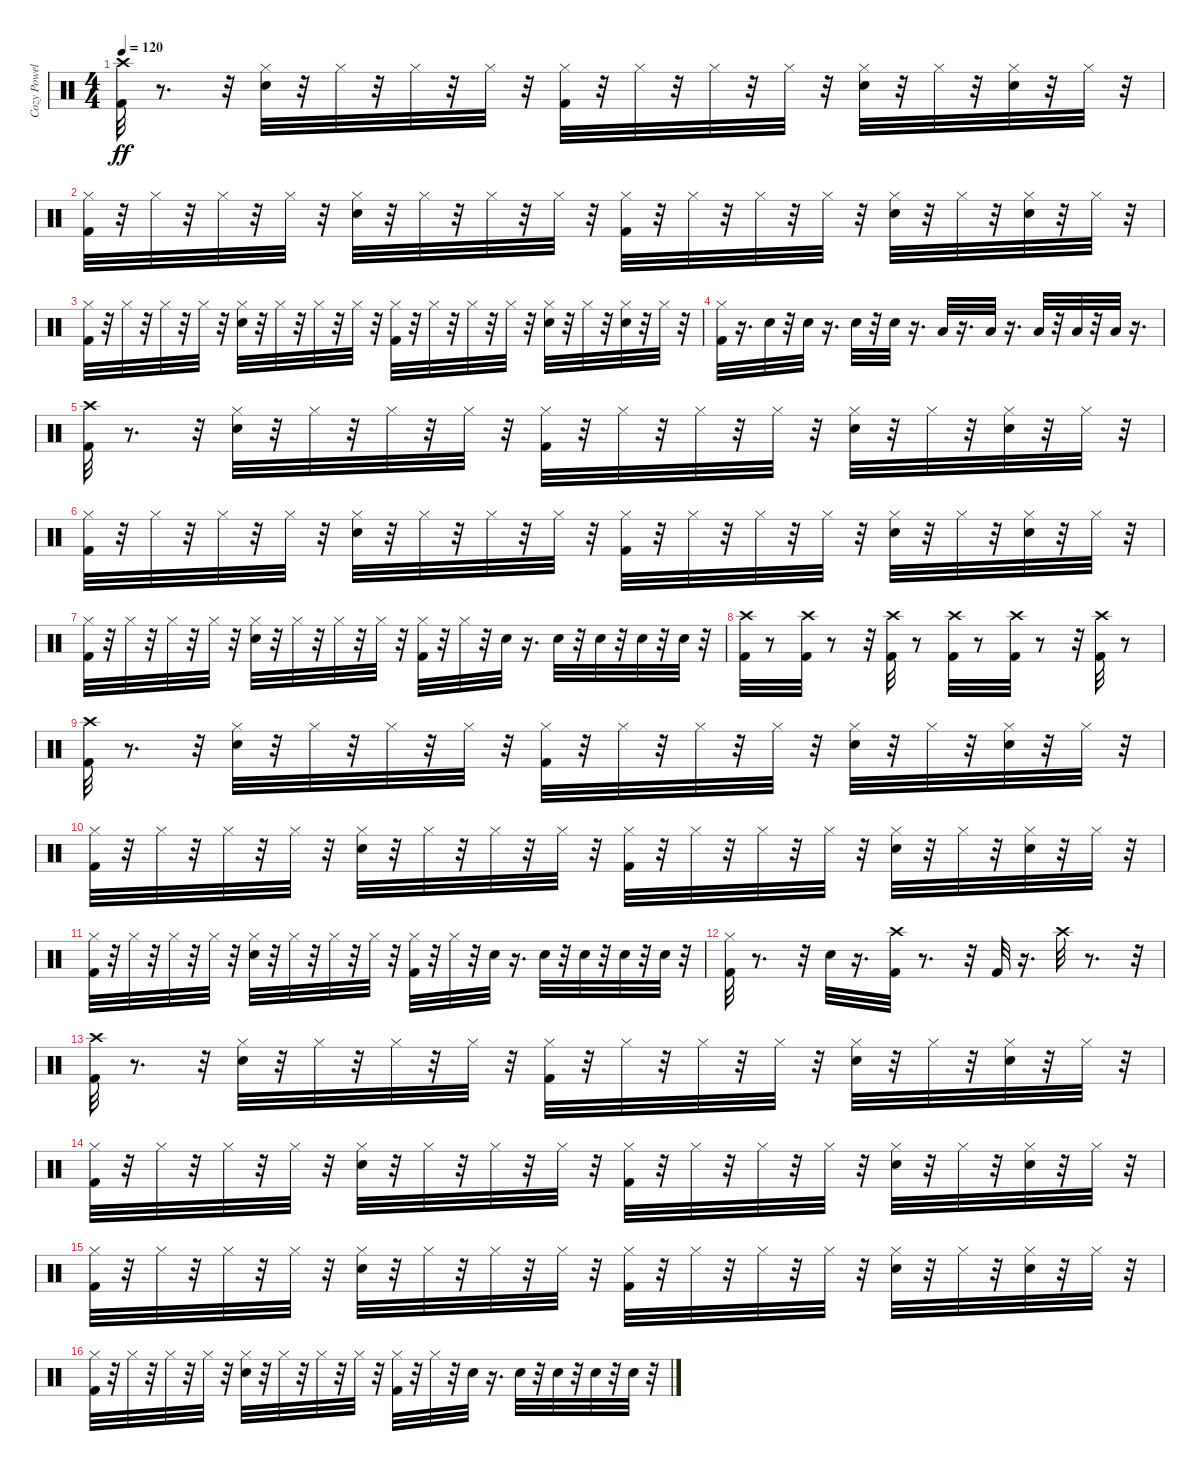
\track ("Cozy Powel" "Cozy Powel") {instrument percussion}
\staff {score}
\articulation defaults
\ts (4 4)
\tempo 120
\clef neutral
\ks c
("Kick (hit) 2" "Crash high (hit)").32{dy ff} r.8{d} r.32 ("Snare (hit) 2" "Hi-Hat (closed)").32 r.32 "Hi-Hat (closed)".32 r.32 "Hi-Hat (closed)".32 r.32 "Hi-Hat (closed)".32 r.32 ("Kick (hit) 2" "Hi-Hat (closed)").32 r.32 "Hi-Hat (closed)".32 r.32 "Hi-Hat (closed)".32 r.32 "Hi-Hat (closed)".32 r.32 ("Snare (hit) 2" "Hi-Hat (closed)").32 r.32 "Hi-Hat (closed)".32 r.32 ("Snare (hit) 2" "Hi-Hat (closed)").32 r.32 "Hi-Hat (closed)".32 r.32 |
("Kick (hit) 2" "Hi-Hat (closed)").32 r.32 "Hi-Hat (closed)".32 r.32 "Hi-Hat (closed)".32 r.32 "Hi-Hat (closed)".32 r.32 ("Snare (hit) 2" "Hi-Hat (closed)").32 r.32 "Hi-Hat (closed)".32 r.32 "Hi-Hat (closed)".32 r.32 "Hi-Hat (closed)".32 r.32 ("Kick (hit) 2" "Hi-Hat (closed)").32 r.32 "Hi-Hat (closed)".32 r.32 "Hi-Hat (closed)".32 r.32 "Hi-Hat (closed)".32 r.32 ("Snare (hit) 2" "Hi-Hat (closed)").32 r.32 "Hi-Hat (closed)".32 r.32 ("Snare (hit) 2" "Hi-Hat (closed)").32 r.32 "Hi-Hat (closed)".32 r.32 |
("Kick (hit) 2" "Hi-Hat (closed)").32 r.32 "Hi-Hat (closed)".32 r.32 "Hi-Hat (closed)".32 r.32 "Hi-Hat (closed)".32 r.32 ("Snare (hit) 2" "Hi-Hat (closed)").32 r.32 "Hi-Hat (closed)".32 r.32 "Hi-Hat (closed)".32 r.32 "Hi-Hat (closed)".32 r.32 ("Kick (hit) 2" "Hi-Hat (closed)").32 r.32 "Hi-Hat (closed)".32 r.32 "Hi-Hat (closed)".32 r.32 "Hi-Hat (closed)".32 r.32 ("Snare (hit) 2" "Hi-Hat (closed)").32 r.32 "Hi-Hat (closed)".32 r.32 ("Snare (hit) 2" "Hi-Hat (closed)").32 r.32 "Hi-Hat (closed)".32 r.32 |
("Kick (hit) 2" "Hi-Hat (closed)").32 r.16{d} "Snare (hit) 2".32 r.32 "Snare (hit) 2".32 r.16{d} "Snare (hit) 2".32 r.32 "Snare (hit) 2".32 r.16{d} "Low Tom (hit)".32 r.16{d} "Low Tom (hit)".32 r.16{d} "Low Tom (hit)".32 r.32 "Low Tom (hit)".32 r.32 "Low Tom (hit)".32 r.16{d} |
("Kick (hit) 2" "Crash high (hit)").32 r.8{d} r.32 ("Snare (hit) 2" "Hi-Hat (closed)").32 r.32 "Hi-Hat (closed)".32 r.32 "Hi-Hat (closed)".32 r.32 "Hi-Hat (closed)".32 r.32 ("Kick (hit) 2" "Hi-Hat (closed)").32 r.32 "Hi-Hat (closed)".32 r.32 "Hi-Hat (closed)".32 r.32 "Hi-Hat (closed)".32 r.32 ("Snare (hit) 2" "Hi-Hat (closed)").32 r.32 "Hi-Hat (closed)".32 r.32 ("Snare (hit) 2" "Hi-Hat (closed)").32 r.32 "Hi-Hat (closed)".32 r.32 |
("Kick (hit) 2" "Hi-Hat (closed)").32 r.32 "Hi-Hat (closed)".32 r.32 "Hi-Hat (closed)".32 r.32 "Hi-Hat (closed)".32 r.32 ("Snare (hit) 2" "Hi-Hat (closed)").32 r.32 "Hi-Hat (closed)".32 r.32 "Hi-Hat (closed)".32 r.32 "Hi-Hat (closed)".32 r.32 ("Kick (hit) 2" "Hi-Hat (closed)").32 r.32 "Hi-Hat (closed)".32 r.32 "Hi-Hat (closed)".32 r.32 "Hi-Hat (closed)".32 r.32 ("Snare (hit) 2" "Hi-Hat (closed)").32 r.32 "Hi-Hat (closed)".32 r.32 ("Snare (hit) 2" "Hi-Hat (closed)").32 r.32 "Hi-Hat (closed)".32 r.32 |
("Kick (hit) 2" "Hi-Hat (closed)").32 r.32 "Hi-Hat (closed)".32 r.32 "Hi-Hat (closed)".32 r.32 "Hi-Hat (closed)".32 r.32 ("Snare (hit) 2" "Hi-Hat (closed)").32 r.32 "Hi-Hat (closed)".32 r.32 "Hi-Hat (closed)".32 r.32 "Hi-Hat (closed)".32 r.32 ("Kick (hit) 2" "Hi-Hat (closed)").32 r.32 "Hi-Hat (closed)".32 r.32 "Snare (hit) 2".32 r.16{d} "Snare (hit) 2".32 r.32 "Snare (hit) 2".32 r.32 "Snare (hit) 2".32 r.32 "Snare (hit) 2".32 r.32 |
("Kick (hit) 2" "Crash high (hit)").32 r.8 ("Kick (hit) 2" "Crash high (hit)").32 r.8 r.32 ("Kick (hit) 2" "Crash high (hit)").32 r.8 ("Kick (hit) 2" "Crash high (hit)").32 r.8 ("Kick (hit) 2" "Crash high (hit)").32 r.8 r.32 ("Kick (hit) 2" "Crash high (hit)").32 r.8 |
("Kick (hit) 2" "Crash high (hit)").32 r.8{d} r.32 ("Snare (hit) 2" "Hi-Hat (closed)").32 r.32 "Hi-Hat (closed)".32 r.32 "Hi-Hat (closed)".32 r.32 "Hi-Hat (closed)".32 r.32 ("Kick (hit) 2" "Hi-Hat (closed)").32 r.32 "Hi-Hat (closed)".32 r.32 "Hi-Hat (closed)".32 r.32 "Hi-Hat (closed)".32 r.32 ("Snare (hit) 2" "Hi-Hat (closed)").32 r.32 "Hi-Hat (closed)".32 r.32 ("Snare (hit) 2" "Hi-Hat (closed)").32 r.32 "Hi-Hat (closed)".32 r.32 |
("Kick (hit) 2" "Hi-Hat (closed)").32 r.32 "Hi-Hat (closed)".32 r.32 "Hi-Hat (closed)".32 r.32 "Hi-Hat (closed)".32 r.32 ("Snare (hit) 2" "Hi-Hat (closed)").32 r.32 "Hi-Hat (closed)".32 r.32 "Hi-Hat (closed)".32 r.32 "Hi-Hat (closed)".32 r.32 ("Kick (hit) 2" "Hi-Hat (closed)").32 r.32 "Hi-Hat (closed)".32 r.32 "Hi-Hat (closed)".32 r.32 "Hi-Hat (closed)".32 r.32 ("Snare (hit) 2" "Hi-Hat (closed)").32 r.32 "Hi-Hat (closed)".32 r.32 ("Snare (hit) 2" "Hi-Hat (closed)").32 r.32 "Hi-Hat (closed)".32 r.32 |
("Kick (hit) 2" "Hi-Hat (closed)").32 r.32 "Hi-Hat (closed)".32 r.32 "Hi-Hat (closed)".32 r.32 "Hi-Hat (closed)".32 r.32 ("Snare (hit) 2" "Hi-Hat (closed)").32 r.32 "Hi-Hat (closed)".32 r.32 "Hi-Hat (closed)".32 r.32 "Hi-Hat (closed)".32 r.32 ("Kick (hit) 2" "Hi-Hat (closed)").32 r.32 "Hi-Hat (closed)".32 r.32 "Snare (hit) 2".32 r.16{d} "Snare (hit) 2".32 r.32 "Snare (hit) 2".32 r.32 "Snare (hit) 2".32 r.32 "Snare (hit) 2".32 r.32 |
("Kick (hit) 2" "Hi-Hat (closed)").32 r.8{d} r.32 "Snare (hit) 2".32 r.16{d} ("Crash high (hit)" "Kick (hit) 2").32 r.8{d} r.32 "Kick (hit) 2".32 r.16{d} "Crash high (hit)".32 r.8{d} r.32 |
("Kick (hit) 2" "Crash high (hit)").32 r.8{d} r.32 ("Snare (hit) 2" "Hi-Hat (closed)").32 r.32 "Hi-Hat (closed)".32 r.32 "Hi-Hat (closed)".32 r.32 "Hi-Hat (closed)".32 r.32 ("Kick (hit) 2" "Hi-Hat (closed)").32 r.32 "Hi-Hat (closed)".32 r.32 "Hi-Hat (closed)".32 r.32 "Hi-Hat (closed)".32 r.32 ("Snare (hit) 2" "Hi-Hat (closed)").32 r.32 "Hi-Hat (closed)".32 r.32 ("Snare (hit) 2" "Hi-Hat (closed)").32 r.32 "Hi-Hat (closed)".32 r.32 |
("Kick (hit) 2" "Hi-Hat (closed)").32 r.32 "Hi-Hat (closed)".32 r.32 "Hi-Hat (closed)".32 r.32 "Hi-Hat (closed)".32 r.32 ("Snare (hit) 2" "Hi-Hat (closed)").32 r.32 "Hi-Hat (closed)".32 r.32 "Hi-Hat (closed)".32 r.32 "Hi-Hat (closed)".32 r.32 ("Kick (hit) 2" "Hi-Hat (closed)").32 r.32 "Hi-Hat (closed)".32 r.32 "Hi-Hat (closed)".32 r.32 "Hi-Hat (closed)".32 r.32 ("Snare (hit) 2" "Hi-Hat (closed)").32 r.32 "Hi-Hat (closed)".32 r.32 ("Snare (hit) 2" "Hi-Hat (closed)").32 r.32 "Hi-Hat (closed)".32 r.32 |
("Kick (hit) 2" "Hi-Hat (closed)").32 r.32 "Hi-Hat (closed)".32 r.32 "Hi-Hat (closed)".32 r.32 "Hi-Hat (closed)".32 r.32 ("Snare (hit) 2" "Hi-Hat (closed)").32 r.32 "Hi-Hat (closed)".32 r.32 "Hi-Hat (closed)".32 r.32 "Hi-Hat (closed)".32 r.32 ("Kick (hit) 2" "Hi-Hat (closed)").32 r.32 "Hi-Hat (closed)".32 r.32 "Hi-Hat (closed)".32 r.32 "Hi-Hat (closed)".32 r.32 ("Snare (hit) 2" "Hi-Hat (closed)").32 r.32 "Hi-Hat (closed)".32 r.32 ("Snare (hit) 2" "Hi-Hat (closed)").32 r.32 "Hi-Hat (closed)".32 r.32 |
("Kick (hit) 2" "Hi-Hat (closed)").32 r.32 "Hi-Hat (closed)".32 r.32 "Hi-Hat (closed)".32 r.32 "Hi-Hat (closed)".32 r.32 ("Snare (hit) 2" "Hi-Hat (closed)").32 r.32 "Hi-Hat (closed)".32 r.32 "Hi-Hat (closed)".32 r.32 "Hi-Hat (closed)".32 r.32 ("Kick (hit) 2" "Hi-Hat (closed)").32 r.32 "Hi-Hat (closed)".32 r.32 "Snare (hit) 2".32 r.16{d} "Snare (hit) 2".32 r.32 "Snare (hit) 2".32 r.32 "Snare (hit) 2".32 r.32 "Snare (hit) 2".32 r.32
